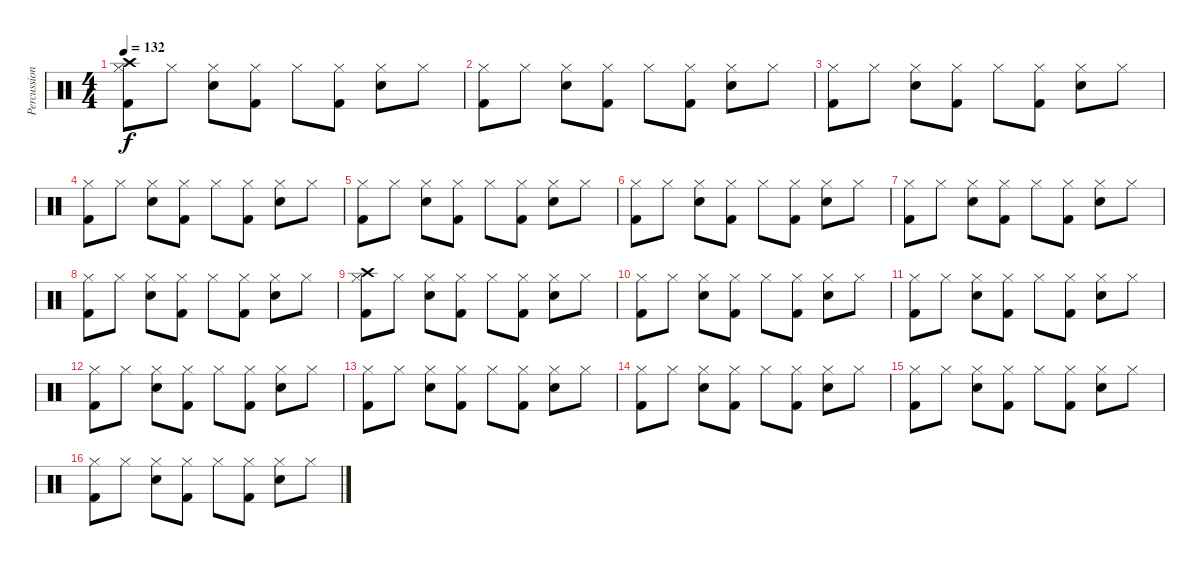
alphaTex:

\track ("Percussion" "Percussion") {instrument percussion}
\staff {score}
\articulation defaults
\ts (4 4)
\tempo 132
\clef neutral
\ks c
("Crash high (hit)" "Hi-Hat (closed)" "Kick (hit) 2").8{dy f} "Hi-Hat (closed)".8 ("Hi-Hat (closed)" "Snare (hit) 2").8 ("Hi-Hat (closed)" "Kick (hit) 2").8 "Hi-Hat (closed)".8 ("Hi-Hat (closed)" "Kick (hit) 2").8 ("Hi-Hat (closed)" "Snare (hit) 2").8 "Hi-Hat (closed)".8 |
("Hi-Hat (closed)" "Kick (hit) 2").8 "Hi-Hat (closed)".8 ("Hi-Hat (closed)" "Snare (hit) 2").8 ("Hi-Hat (closed)" "Kick (hit) 2").8 "Hi-Hat (closed)".8 ("Hi-Hat (closed)" "Kick (hit) 2").8 ("Hi-Hat (closed)" "Snare (hit) 2").8 "Hi-Hat (closed)".8 |
("Hi-Hat (closed)" "Kick (hit) 2").8 "Hi-Hat (closed)".8 ("Hi-Hat (closed)" "Snare (hit) 2").8 ("Hi-Hat (closed)" "Kick (hit) 2").8 "Hi-Hat (closed)".8 ("Hi-Hat (closed)" "Kick (hit) 2").8 ("Hi-Hat (closed)" "Snare (hit) 2").8 "Hi-Hat (closed)".8 |
("Hi-Hat (closed)" "Kick (hit) 2").8 "Hi-Hat (closed)".8 ("Hi-Hat (closed)" "Snare (hit) 2").8 ("Hi-Hat (closed)" "Kick (hit) 2").8 "Hi-Hat (closed)".8 ("Hi-Hat (closed)" "Kick (hit) 2").8 ("Hi-Hat (closed)" "Snare (hit) 2").8 "Hi-Hat (closed)".8 |
("Hi-Hat (closed)" "Kick (hit) 2").8 "Hi-Hat (closed)".8 ("Hi-Hat (closed)" "Snare (hit) 2").8 ("Hi-Hat (closed)" "Kick (hit) 2").8 "Hi-Hat (closed)".8 ("Hi-Hat (closed)" "Kick (hit) 2").8 ("Hi-Hat (closed)" "Snare (hit) 2").8 "Hi-Hat (closed)".8 |
("Hi-Hat (closed)" "Kick (hit) 2").8 "Hi-Hat (closed)".8 ("Hi-Hat (closed)" "Snare (hit) 2").8 ("Hi-Hat (closed)" "Kick (hit) 2").8 "Hi-Hat (closed)".8 ("Hi-Hat (closed)" "Kick (hit) 2").8 ("Hi-Hat (closed)" "Snare (hit) 2").8 "Hi-Hat (closed)".8 |
("Hi-Hat (closed)" "Kick (hit) 2").8 "Hi-Hat (closed)".8 ("Hi-Hat (closed)" "Snare (hit) 2").8 ("Hi-Hat (closed)" "Kick (hit) 2").8 "Hi-Hat (closed)".8 ("Hi-Hat (closed)" "Kick (hit) 2").8 ("Hi-Hat (closed)" "Snare (hit) 2").8 "Hi-Hat (closed)".8 |
("Hi-Hat (closed)" "Kick (hit) 2").8 "Hi-Hat (closed)".8 ("Hi-Hat (closed)" "Snare (hit) 2").8 ("Hi-Hat (closed)" "Kick (hit) 2").8 "Hi-Hat (closed)".8 ("Hi-Hat (closed)" "Kick (hit) 2").8 ("Hi-Hat (closed)" "Snare (hit) 2").8 "Hi-Hat (closed)".8 |
("Crash high (hit)" "Hi-Hat (closed)" "Kick (hit) 2").8 "Hi-Hat (closed)".8 ("Hi-Hat (closed)" "Snare (hit) 2").8 ("Hi-Hat (closed)" "Kick (hit) 2").8 "Hi-Hat (closed)".8 ("Hi-Hat (closed)" "Kick (hit) 2").8 ("Hi-Hat (closed)" "Snare (hit) 2").8 "Hi-Hat (closed)".8 |
("Hi-Hat (closed)" "Kick (hit) 2").8 "Hi-Hat (closed)".8 ("Hi-Hat (closed)" "Snare (hit) 2").8 ("Hi-Hat (closed)" "Kick (hit) 2").8 "Hi-Hat (closed)".8 ("Hi-Hat (closed)" "Kick (hit) 2").8 ("Hi-Hat (closed)" "Snare (hit) 2").8 "Hi-Hat (closed)".8 |
("Hi-Hat (closed)" "Kick (hit) 2").8 "Hi-Hat (closed)".8 ("Hi-Hat (closed)" "Snare (hit) 2").8 ("Hi-Hat (closed)" "Kick (hit) 2").8 "Hi-Hat (closed)".8 ("Hi-Hat (closed)" "Kick (hit) 2").8 ("Hi-Hat (closed)" "Snare (hit) 2").8 "Hi-Hat (closed)".8 |
("Hi-Hat (closed)" "Kick (hit) 2").8 "Hi-Hat (closed)".8 ("Hi-Hat (closed)" "Snare (hit) 2").8 ("Hi-Hat (closed)" "Kick (hit) 2").8 "Hi-Hat (closed)".8 ("Hi-Hat (closed)" "Kick (hit) 2").8 ("Hi-Hat (closed)" "Snare (hit) 2").8 "Hi-Hat (closed)".8 |
("Hi-Hat (closed)" "Kick (hit) 2").8 "Hi-Hat (closed)".8 ("Hi-Hat (closed)" "Snare (hit) 2").8 ("Hi-Hat (closed)" "Kick (hit) 2").8 "Hi-Hat (closed)".8 ("Hi-Hat (closed)" "Kick (hit) 2").8 ("Hi-Hat (closed)" "Snare (hit) 2").8 "Hi-Hat (closed)".8 |
("Hi-Hat (closed)" "Kick (hit) 2").8 "Hi-Hat (closed)".8 ("Hi-Hat (closed)" "Snare (hit) 2").8 ("Hi-Hat (closed)" "Kick (hit) 2").8 "Hi-Hat (closed)".8 ("Hi-Hat (closed)" "Kick (hit) 2").8 ("Hi-Hat (closed)" "Snare (hit) 2").8 "Hi-Hat (closed)".8 |
("Hi-Hat (closed)" "Kick (hit) 2").8 "Hi-Hat (closed)".8 ("Hi-Hat (closed)" "Snare (hit) 2").8 ("Hi-Hat (closed)" "Kick (hit) 2").8 "Hi-Hat (closed)".8 ("Hi-Hat (closed)" "Kick (hit) 2").8 ("Hi-Hat (closed)" "Snare (hit) 2").8 "Hi-Hat (closed)".8 |
("Hi-Hat (closed)" "Kick (hit) 2").8 "Hi-Hat (closed)".8 ("Hi-Hat (closed)" "Snare (hit) 2").8 ("Hi-Hat (closed)" "Kick (hit) 2").8 "Hi-Hat (closed)".8 ("Hi-Hat (closed)" "Kick (hit) 2").8 ("Hi-Hat (closed)" "Snare (hit) 2").8 "Hi-Hat (closed)".8
